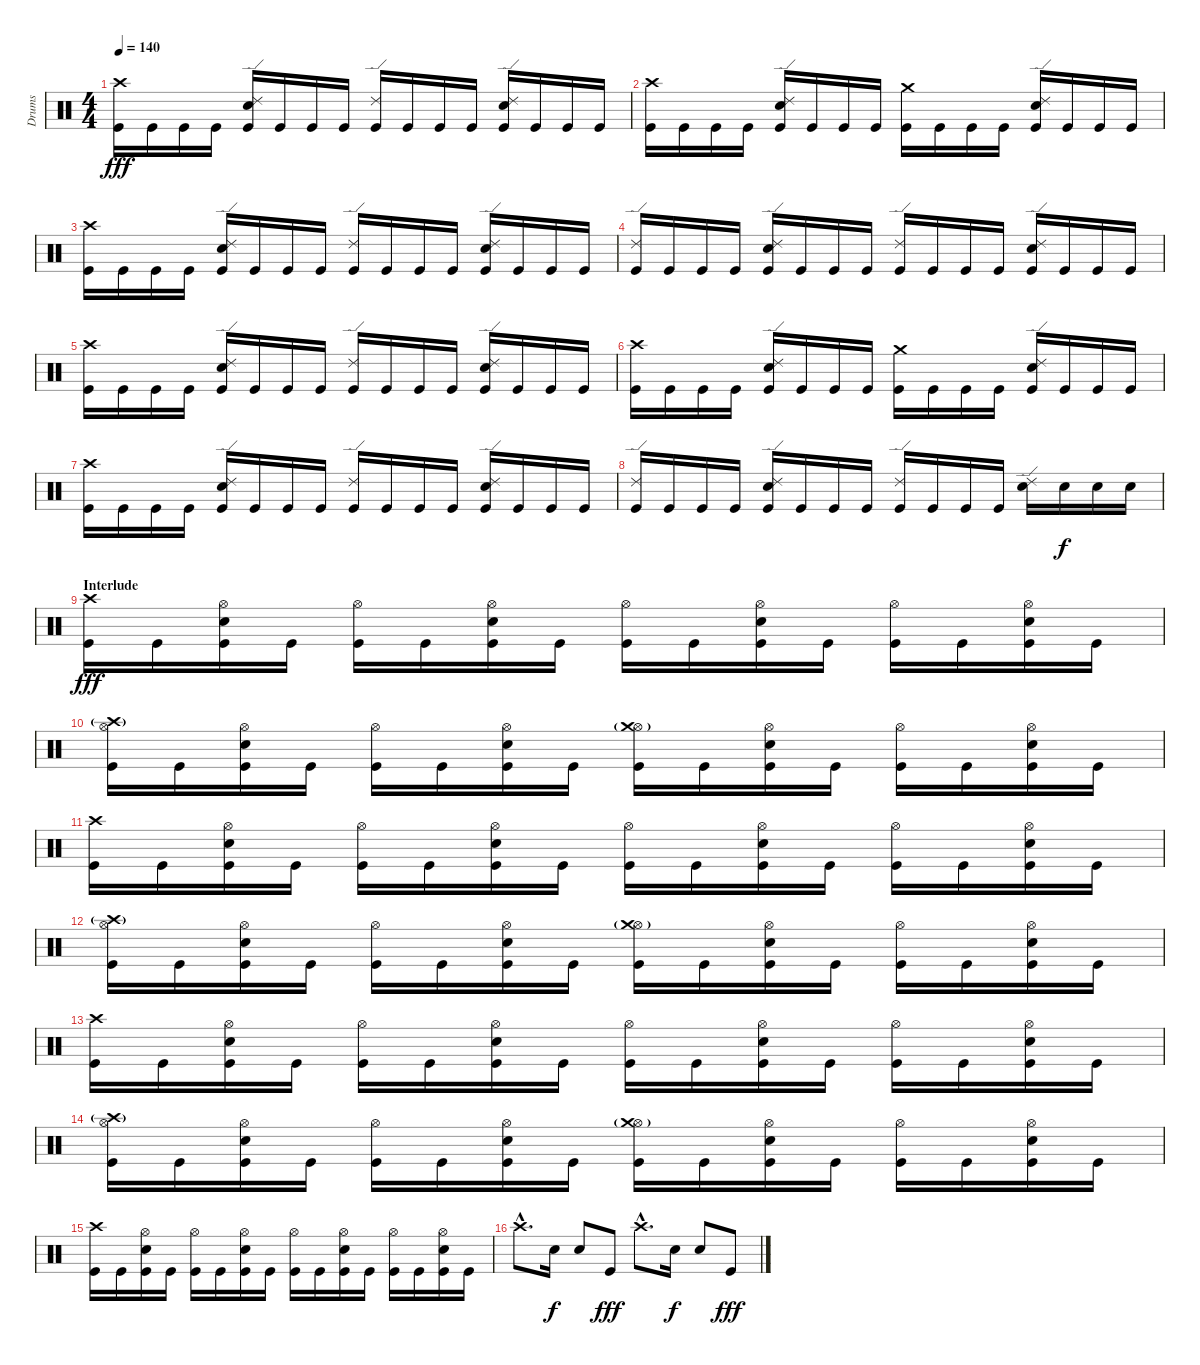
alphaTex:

\track ("Drums" "Drums") {instrument percussion}
\staff {score}
\articulation defaults
\ts (4 4)
\tempo 140
\clef neutral
\ks c
("Crash high (hit)" "Kick (hit)").16{dy fff} "Kick (hit)".16 "Kick (hit)".16 "Kick (hit)".16 ("Ride (edge) 2" "Snare (hit) 2" "Kick (hit)").16 "Kick (hit)".16 "Kick (hit)".16 "Kick (hit)".16 ("Ride (edge) 2" "Kick (hit)").16 "Kick (hit)".16 "Kick (hit)".16 "Kick (hit)".16 ("Ride (edge) 2" "Snare (hit) 2" "Kick (hit)").16 "Kick (hit)".16 "Kick (hit)".16 "Kick (hit)".16 |
("Crash high (hit)" "Kick (hit)").16 "Kick (hit)".16 "Kick (hit)".16 "Kick (hit)".16 ("Ride (edge) 2" "Snare (hit) 2" "Kick (hit)").16 "Kick (hit)".16 "Kick (hit)".16 "Kick (hit)".16 ("Crash medium (hit)" "Kick (hit)").16 "Kick (hit)".16 "Kick (hit)".16 "Kick (hit)".16 ("Ride (edge) 2" "Snare (hit) 2" "Kick (hit)").16 "Kick (hit)".16 "Kick (hit)".16 "Kick (hit)".16 |
("Crash high (hit)" "Kick (hit)").16 "Kick (hit)".16 "Kick (hit)".16 "Kick (hit)".16 ("Ride (edge) 2" "Snare (hit) 2" "Kick (hit)").16 "Kick (hit)".16 "Kick (hit)".16 "Kick (hit)".16 ("Ride (edge) 2" "Kick (hit)").16 "Kick (hit)".16 "Kick (hit)".16 "Kick (hit)".16 ("Ride (edge) 2" "Snare (hit) 2" "Kick (hit)").16 "Kick (hit)".16 "Kick (hit)".16 "Kick (hit)".16 |
("Ride (edge) 2" "Kick (hit)").16 "Kick (hit)".16 "Kick (hit)".16 "Kick (hit)".16 ("Ride (edge) 2" "Snare (hit) 2" "Kick (hit)").16 "Kick (hit)".16 "Kick (hit)".16 "Kick (hit)".16 ("Ride (edge) 2" "Kick (hit)").16 "Kick (hit)".16 "Kick (hit)".16 "Kick (hit)".16 ("Ride (edge) 2" "Snare (hit) 2" "Kick (hit)").16 "Kick (hit)".16 "Kick (hit)".16 "Kick (hit)".16 |
("Crash high (hit)" "Kick (hit)").16 "Kick (hit)".16 "Kick (hit)".16 "Kick (hit)".16 ("Ride (edge) 2" "Snare (hit) 2" "Kick (hit)").16 "Kick (hit)".16 "Kick (hit)".16 "Kick (hit)".16 ("Ride (edge) 2" "Kick (hit)").16 "Kick (hit)".16 "Kick (hit)".16 "Kick (hit)".16 ("Ride (edge) 2" "Snare (hit) 2" "Kick (hit)").16 "Kick (hit)".16 "Kick (hit)".16 "Kick (hit)".16 |
("Crash high (hit)" "Kick (hit)").16 "Kick (hit)".16 "Kick (hit)".16 "Kick (hit)".16 ("Ride (edge) 2" "Snare (hit) 2" "Kick (hit)").16 "Kick (hit)".16 "Kick (hit)".16 "Kick (hit)".16 ("Crash medium (hit)" "Kick (hit)").16 "Kick (hit)".16 "Kick (hit)".16 "Kick (hit)".16 ("Ride (edge) 2" "Snare (hit) 2" "Kick (hit)").16 "Kick (hit)".16 "Kick (hit)".16 "Kick (hit)".16 |
("Crash high (hit)" "Kick (hit)").16 "Kick (hit)".16 "Kick (hit)".16 "Kick (hit)".16 ("Ride (edge) 2" "Snare (hit) 2" "Kick (hit)").16 "Kick (hit)".16 "Kick (hit)".16 "Kick (hit)".16 ("Ride (edge) 2" "Kick (hit)").16 "Kick (hit)".16 "Kick (hit)".16 "Kick (hit)".16 ("Ride (edge) 2" "Snare (hit) 2" "Kick (hit)").16 "Kick (hit)".16 "Kick (hit)".16 "Kick (hit)".16 |
("Ride (edge) 2" "Kick (hit)").16 "Kick (hit)".16 "Kick (hit)".16 "Kick (hit)".16 ("Ride (edge) 2" "Snare (hit) 2" "Kick (hit)").16 "Kick (hit)".16 "Kick (hit)".16 "Kick (hit)".16 ("Ride (edge) 2" "Kick (hit)").16 "Kick (hit)".16 "Kick (hit)".16 "Kick (hit)".16 ("Ride (edge) 2" "Snare (hit) 2").16 "Snare (hit) 2".16{dy f} "Snare (hit) 2".16 "Snare (hit) 2".16 |
\section ("" "Interlude")
("Crash high (hit)" "Kick (hit)").16{dy fff} "Kick (hit)".16 ("Hi-Hat (open)" "Snare (hit) 2" "Kick (hit)").16 "Kick (hit)".16 ("Hi-Hat (open)" "Kick (hit)").16 "Kick (hit)".16 ("Hi-Hat (open)" "Snare (hit) 2" "Kick (hit)").16 "Kick (hit)".16 ("Hi-Hat (open)" "Kick (hit)").16 "Kick (hit)".16 ("Hi-Hat (open)" "Snare (hit) 2" "Kick (hit)").16 "Kick (hit)".16 ("Hi-Hat (open)" "Kick (hit)").16 "Kick (hit)".16 ("Hi-Hat (open)" "Snare (hit) 2" "Kick (hit)").16 "Kick (hit)".16 |
("Hi-Hat (open)" "Crash high (hit)"{g} "Kick (hit)").16 "Kick (hit)".16 ("Hi-Hat (open)" "Snare (hit) 2" "Kick (hit)").16 "Kick (hit)".16 ("Hi-Hat (open)" "Kick (hit)").16 "Kick (hit)".16 ("Hi-Hat (open)" "Snare (hit) 2" "Kick (hit)").16 "Kick (hit)".16 ("Hi-Hat (open)" "Crash medium (hit)"{g} "Kick (hit)").16 "Kick (hit)".16 ("Hi-Hat (open)" "Snare (hit) 2" "Kick (hit)").16 "Kick (hit)".16 ("Hi-Hat (open)" "Kick (hit)").16 "Kick (hit)".16 ("Hi-Hat (open)" "Snare (hit) 2" "Kick (hit)").16 "Kick (hit)".16 |
("Crash high (hit)" "Kick (hit)").16 "Kick (hit)".16 ("Hi-Hat (open)" "Snare (hit) 2" "Kick (hit)").16 "Kick (hit)".16 ("Hi-Hat (open)" "Kick (hit)").16 "Kick (hit)".16 ("Hi-Hat (open)" "Snare (hit) 2" "Kick (hit)").16 "Kick (hit)".16 ("Hi-Hat (open)" "Kick (hit)").16 "Kick (hit)".16 ("Hi-Hat (open)" "Snare (hit) 2" "Kick (hit)").16 "Kick (hit)".16 ("Hi-Hat (open)" "Kick (hit)").16 "Kick (hit)".16 ("Hi-Hat (open)" "Snare (hit) 2" "Kick (hit)").16 "Kick (hit)".16 |
("Hi-Hat (open)" "Crash high (hit)"{g} "Kick (hit)").16 "Kick (hit)".16 ("Hi-Hat (open)" "Snare (hit) 2" "Kick (hit)").16 "Kick (hit)".16 ("Hi-Hat (open)" "Kick (hit)").16 "Kick (hit)".16 ("Hi-Hat (open)" "Snare (hit) 2" "Kick (hit)").16 "Kick (hit)".16 ("Hi-Hat (open)" "Crash medium (hit)"{g} "Kick (hit)").16 "Kick (hit)".16 ("Hi-Hat (open)" "Snare (hit) 2" "Kick (hit)").16 "Kick (hit)".16 ("Hi-Hat (open)" "Kick (hit)").16 "Kick (hit)".16 ("Hi-Hat (open)" "Snare (hit) 2" "Kick (hit)").16 "Kick (hit)".16 |
("Crash high (hit)" "Kick (hit)").16 "Kick (hit)".16 ("Hi-Hat (open)" "Snare (hit) 2" "Kick (hit)").16 "Kick (hit)".16 ("Hi-Hat (open)" "Kick (hit)").16 "Kick (hit)".16 ("Hi-Hat (open)" "Snare (hit) 2" "Kick (hit)").16 "Kick (hit)".16 ("Hi-Hat (open)" "Kick (hit)").16 "Kick (hit)".16 ("Hi-Hat (open)" "Snare (hit) 2" "Kick (hit)").16 "Kick (hit)".16 ("Hi-Hat (open)" "Kick (hit)").16 "Kick (hit)".16 ("Hi-Hat (open)" "Snare (hit) 2" "Kick (hit)").16 "Kick (hit)".16 |
("Hi-Hat (open)" "Crash high (hit)"{g} "Kick (hit)").16 "Kick (hit)".16 ("Hi-Hat (open)" "Snare (hit) 2" "Kick (hit)").16 "Kick (hit)".16 ("Hi-Hat (open)" "Kick (hit)").16 "Kick (hit)".16 ("Hi-Hat (open)" "Snare (hit) 2" "Kick (hit)").16 "Kick (hit)".16 ("Hi-Hat (open)" "Crash medium (hit)"{g} "Kick (hit)").16 "Kick (hit)".16 ("Hi-Hat (open)" "Snare (hit) 2" "Kick (hit)").16 "Kick (hit)".16 ("Hi-Hat (open)" "Kick (hit)").16 "Kick (hit)".16 ("Hi-Hat (open)" "Snare (hit) 2" "Kick (hit)").16 "Kick (hit)".16 |
("Crash high (hit)" "Kick (hit)").16 "Kick (hit)".16 ("Hi-Hat (open)" "Snare (hit) 2" "Kick (hit)").16 "Kick (hit)".16 ("Hi-Hat (open)" "Kick (hit)").16 "Kick (hit)".16 ("Hi-Hat (open)" "Snare (hit) 2" "Kick (hit)").16 "Kick (hit)".16 ("Hi-Hat (open)" "Kick (hit)").16 "Kick (hit)".16 ("Hi-Hat (open)" "Snare (hit) 2" "Kick (hit)").16 "Kick (hit)".16 ("Hi-Hat (open)" "Kick (hit)").16 "Kick (hit)".16 ("Hi-Hat (open)" "Snare (hit) 2" "Kick (hit)").16 "Kick (hit)".16 |
"Crash high (hit)"{hac}.8{d} "Snare (hit) 2".16{dy f} "Snare (hit) 2".8 "Kick (hit)".8{dy fff} "Crash high (hit)"{hac}.8{d} "Snare (hit) 2".16{dy f} "Snare (hit) 2".8 "Kick (hit)".8{dy fff}
